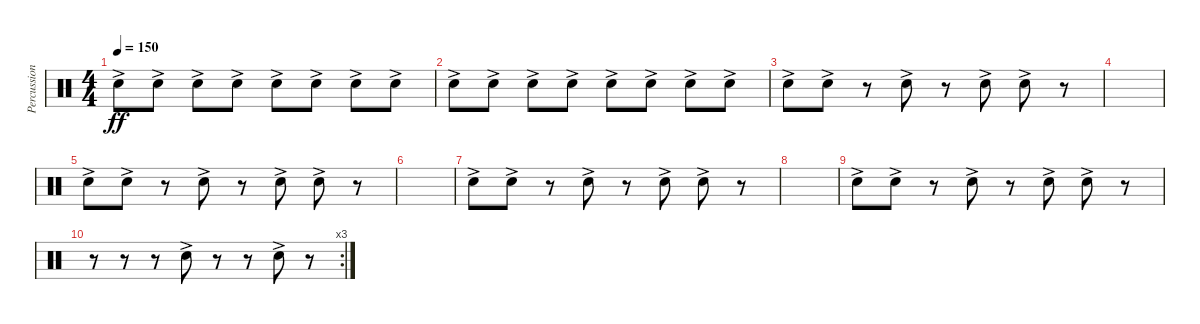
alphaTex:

\track ("Percussion" "Percussion") {instrument percussion bank 1}
\staff {score}
\articulation defaults
\ts (4 4)
\tempo 150
\clef neutral
\ks c "Snare (hit) 2"{ac}.8{dy ff} "Snare (hit) 2"{ac}.8 "Snare (hit) 2"{ac}.8 "Snare (hit) 2"{ac}.8 "Snare (hit) 2"{ac}.8 "Snare (hit) 2"{ac}.8 "Snare (hit) 2"{ac}.8 "Snare (hit) 2"{ac}.8
|
"Snare (hit) 2"{ac}.8 "Snare (hit) 2"{ac}.8 "Snare (hit) 2"{ac}.8 "Snare (hit) 2"{ac}.8 "Snare (hit) 2"{ac}.8 "Snare (hit) 2"{ac}.8 "Snare (hit) 2"{ac}.8 "Snare (hit) 2"{ac}.8 |
"Snare (hit) 2"{ac}.8 "Snare (hit) 2"{ac}.8 r.8 "Snare (hit) 2"{ac}.8 r.8 "Snare (hit) 2"{ac}.8 "Snare (hit) 2"{ac}.8 r.8 |
|
"Snare (hit) 2"{ac}.8 "Snare (hit) 2"{ac}.8 r.8 "Snare (hit) 2"{ac}.8 r.8 "Snare (hit) 2"{ac}.8 "Snare (hit) 2"{ac}.8 r.8 |
|
"Snare (hit) 2"{ac}.8 "Snare (hit) 2"{ac}.8 r.8 "Snare (hit) 2"{ac}.8 r.8 "Snare (hit) 2"{ac}.8 "Snare (hit) 2"{ac}.8 r.8 |
|
"Snare (hit) 2"{ac}.8 "Snare (hit) 2"{ac}.8 r.8 "Snare (hit) 2"{ac}.8 r.8 "Snare (hit) 2"{ac}.8 "Snare (hit) 2"{ac}.8 r.8 |
\rc 3
r.8 r.8 r.8 "Snare (hit) 2"{ac}.8 r.8 r.8 "Snare (hit) 2"{ac}.8 r.8
